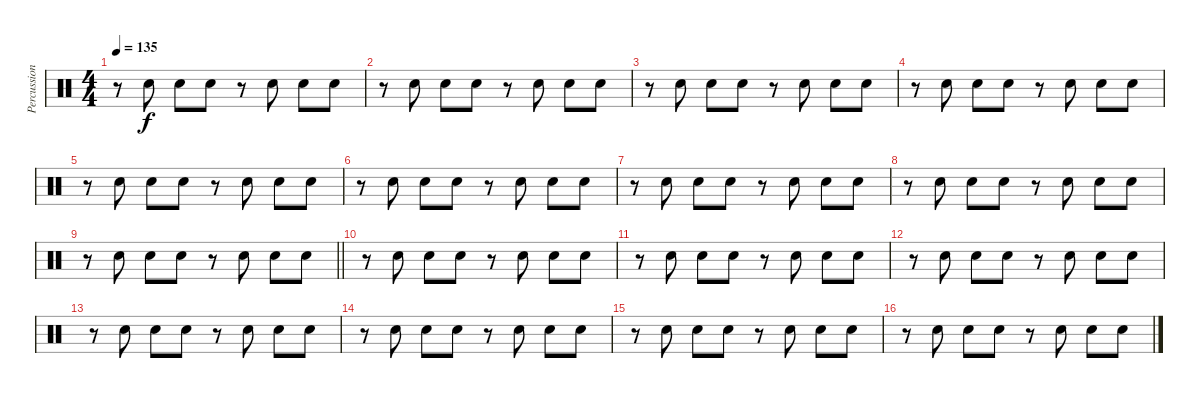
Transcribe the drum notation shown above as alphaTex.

\track ("Percussions 2" "Percussion") {instrument percussion}
\staff {score}
\articulation defaults
\ts (4 4)
\tempo 135
\clef neutral
\ks c
r.8{dy f} "Snare (hit) 2".8 "Snare (hit) 2".8 "Snare (hit) 2".8 r.8 "Snare (hit) 2".8 "Snare (hit) 2".8 "Snare (hit) 2".8 |
r.8 "Snare (hit) 2".8 "Snare (hit) 2".8 "Snare (hit) 2".8 r.8 "Snare (hit) 2".8 "Snare (hit) 2".8 "Snare (hit) 2".8 |
r.8 "Snare (hit) 2".8 "Snare (hit) 2".8 "Snare (hit) 2".8 r.8 "Snare (hit) 2".8 "Snare (hit) 2".8 "Snare (hit) 2".8 |
r.8 "Snare (hit) 2".8 "Snare (hit) 2".8 "Snare (hit) 2".8 r.8 "Snare (hit) 2".8 "Snare (hit) 2".8 "Snare (hit) 2".8 |
r.8 "Snare (hit) 2".8 "Snare (hit) 2".8 "Snare (hit) 2".8 r.8 "Snare (hit) 2".8 "Snare (hit) 2".8 "Snare (hit) 2".8 |
r.8 "Snare (hit) 2".8 "Snare (hit) 2".8 "Snare (hit) 2".8 r.8 "Snare (hit) 2".8 "Snare (hit) 2".8 "Snare (hit) 2".8 |
r.8 "Snare (hit) 2".8 "Snare (hit) 2".8 "Snare (hit) 2".8 r.8 "Snare (hit) 2".8 "Snare (hit) 2".8 "Snare (hit) 2".8 |
r.8 "Snare (hit) 2".8 "Snare (hit) 2".8 "Snare (hit) 2".8 r.8 "Snare (hit) 2".8 "Snare (hit) 2".8 "Snare (hit) 2".8 |
\barLineRight lightlight
r.8 "Snare (hit) 2".8 "Snare (hit) 2".8 "Snare (hit) 2".8 r.8 "Snare (hit) 2".8 "Snare (hit) 2".8 "Snare (hit) 2".8 |
r.8 "Snare (hit) 2".8 "Snare (hit) 2".8 "Snare (hit) 2".8 r.8 "Snare (hit) 2".8 "Snare (hit) 2".8 "Snare (hit) 2".8 |
r.8 "Snare (hit) 2".8 "Snare (hit) 2".8 "Snare (hit) 2".8 r.8 "Snare (hit) 2".8 "Snare (hit) 2".8 "Snare (hit) 2".8 |
r.8 "Snare (hit) 2".8 "Snare (hit) 2".8 "Snare (hit) 2".8 r.8 "Snare (hit) 2".8 "Snare (hit) 2".8 "Snare (hit) 2".8 |
r.8 "Snare (hit) 2".8 "Snare (hit) 2".8 "Snare (hit) 2".8 r.8 "Snare (hit) 2".8 "Snare (hit) 2".8 "Snare (hit) 2".8 |
r.8 "Snare (hit) 2".8 "Snare (hit) 2".8 "Snare (hit) 2".8 r.8 "Snare (hit) 2".8 "Snare (hit) 2".8 "Snare (hit) 2".8 |
r.8 "Snare (hit) 2".8 "Snare (hit) 2".8 "Snare (hit) 2".8 r.8 "Snare (hit) 2".8 "Snare (hit) 2".8 "Snare (hit) 2".8 |
r.8 "Snare (hit) 2".8 "Snare (hit) 2".8 "Snare (hit) 2".8 r.8 "Snare (hit) 2".8 "Snare (hit) 2".8 "Snare (hit) 2".8
